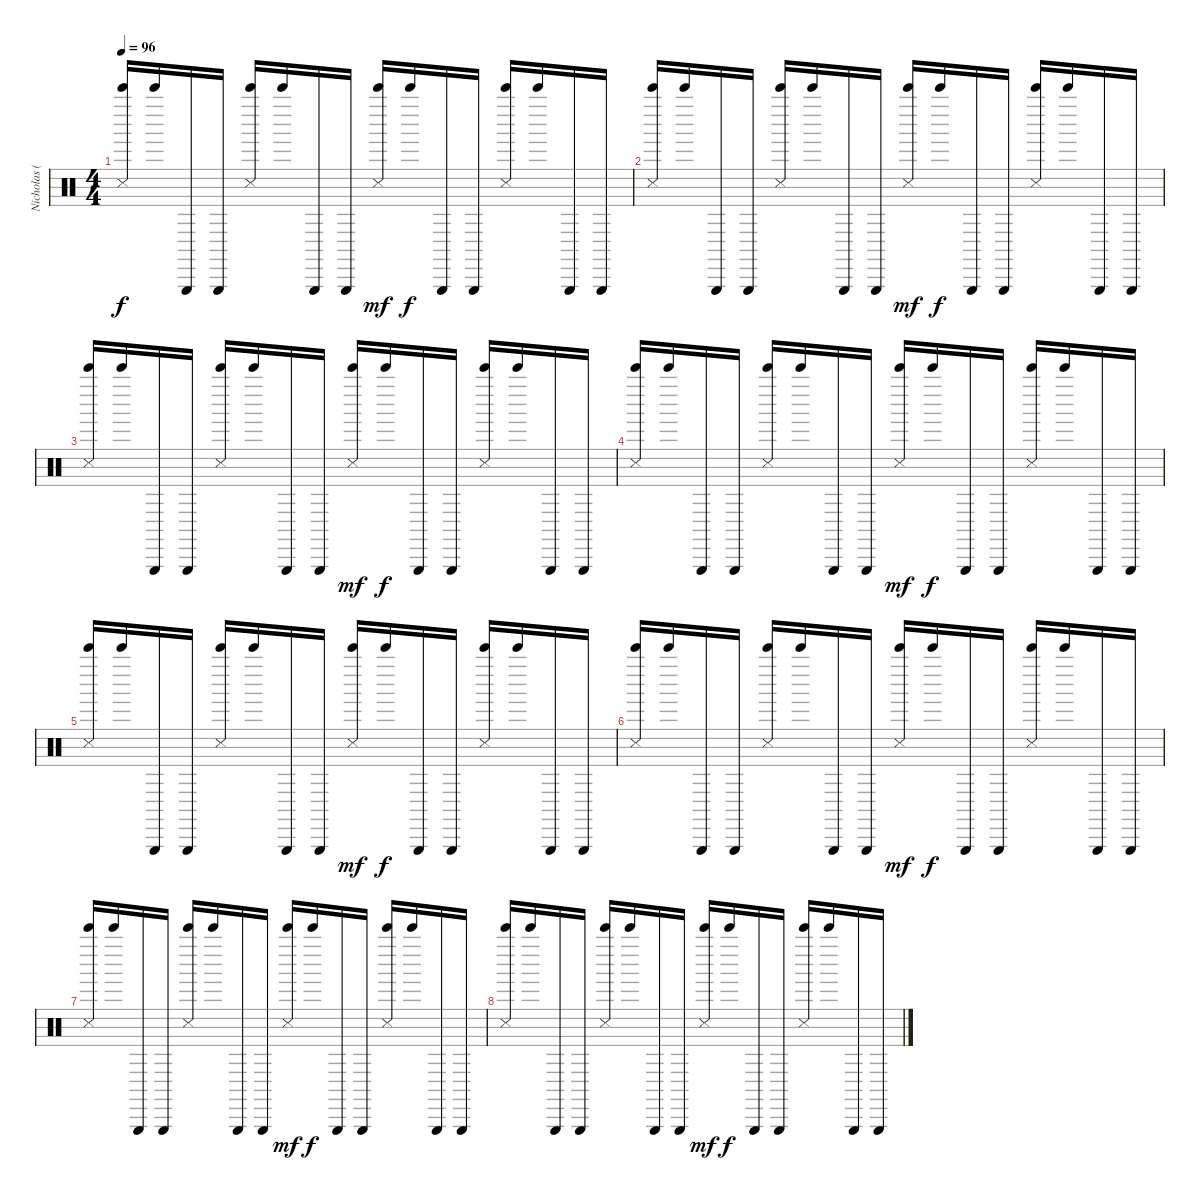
\track ("Nicholas (Drums)" "Nicholas (") {instrument percussion}
\staff {score}
\articulation defaults
\ts (4 4)
\section ("" "")
\tempo 96
\tempo 120
\tempo 96
\clef neutral
\ks c
("Bell Tree (hit)" "Metronome (hit)").16{dy f} "Bell Tree (hit)".16 "Triangle (hit)".16 "Triangle (hit)".16 ("Bell Tree (hit)" "Snare (side stick) 3").16 "Bell Tree (hit)".16 "Triangle (hit)".16 "Triangle (hit)".16 ("Bell Tree (hit)" "Metronome (hit)").16{dy mf} "Bell Tree (hit)".16{dy f} "Triangle (hit)".16 "Triangle (hit)".16 ("Bell Tree (hit)" "Snare (side stick) 3").16 "Bell Tree (hit)".16 "Triangle (hit)".16 "Triangle (hit)".16 |
("Bell Tree (hit)" "Metronome (hit)").16 "Bell Tree (hit)".16 "Triangle (hit)".16 "Triangle (hit)".16 ("Bell Tree (hit)" "Snare (side stick) 3").16 "Bell Tree (hit)".16 "Triangle (hit)".16 "Triangle (hit)".16 ("Bell Tree (hit)" "Metronome (hit)").16{dy mf} "Bell Tree (hit)".16{dy f} "Triangle (hit)".16 "Triangle (hit)".16 ("Bell Tree (hit)" "Snare (side stick) 3").16 "Bell Tree (hit)".16 "Triangle (hit)".16 "Triangle (hit)".16 |
("Bell Tree (hit)" "Metronome (hit)").16 "Bell Tree (hit)".16 "Triangle (hit)".16 "Triangle (hit)".16 ("Bell Tree (hit)" "Snare (side stick) 3").16 "Bell Tree (hit)".16 "Triangle (hit)".16 "Triangle (hit)".16 ("Bell Tree (hit)" "Metronome (hit)").16{dy mf} "Bell Tree (hit)".16{dy f} "Triangle (hit)".16 "Triangle (hit)".16 ("Bell Tree (hit)" "Snare (side stick) 3").16 "Bell Tree (hit)".16 "Triangle (hit)".16 "Triangle (hit)".16 |
("Bell Tree (hit)" "Metronome (hit)").16 "Bell Tree (hit)".16 "Triangle (hit)".16 "Triangle (hit)".16 ("Bell Tree (hit)" "Snare (side stick) 3").16 "Bell Tree (hit)".16 "Triangle (hit)".16 "Triangle (hit)".16 ("Bell Tree (hit)" "Metronome (hit)").16{dy mf} "Bell Tree (hit)".16{dy f} "Triangle (hit)".16 "Triangle (hit)".16 ("Bell Tree (hit)" "Snare (side stick) 3").16 "Bell Tree (hit)".16 "Triangle (hit)".16 "Triangle (hit)".16 |
("Bell Tree (hit)" "Metronome (hit)").16 "Bell Tree (hit)".16 "Triangle (hit)".16 "Triangle (hit)".16 ("Bell Tree (hit)" "Snare (side stick) 3").16 "Bell Tree (hit)".16 "Triangle (hit)".16 "Triangle (hit)".16 ("Bell Tree (hit)" "Metronome (hit)").16{dy mf} "Bell Tree (hit)".16{dy f} "Triangle (hit)".16 "Triangle (hit)".16 ("Bell Tree (hit)" "Snare (side stick) 3").16 "Bell Tree (hit)".16 "Triangle (hit)".16 "Triangle (hit)".16 |
("Bell Tree (hit)" "Metronome (hit)").16 "Bell Tree (hit)".16 "Triangle (hit)".16 "Triangle (hit)".16 ("Bell Tree (hit)" "Snare (side stick) 3").16 "Bell Tree (hit)".16 "Triangle (hit)".16 "Triangle (hit)".16 ("Bell Tree (hit)" "Metronome (hit)").16{dy mf} "Bell Tree (hit)".16{dy f} "Triangle (hit)".16 "Triangle (hit)".16 ("Bell Tree (hit)" "Snare (side stick) 3").16 "Bell Tree (hit)".16 "Triangle (hit)".16 "Triangle (hit)".16 |
("Bell Tree (hit)" "Metronome (hit)").16 "Bell Tree (hit)".16 "Triangle (hit)".16 "Triangle (hit)".16 ("Bell Tree (hit)" "Snare (side stick) 3").16 "Bell Tree (hit)".16 "Triangle (hit)".16 "Triangle (hit)".16 ("Bell Tree (hit)" "Metronome (hit)").16{dy mf} "Bell Tree (hit)".16{dy f} "Triangle (hit)".16 "Triangle (hit)".16 ("Bell Tree (hit)" "Snare (side stick) 3").16 "Bell Tree (hit)".16 "Triangle (hit)".16 "Triangle (hit)".16 |
("Bell Tree (hit)" "Metronome (hit)").16 "Bell Tree (hit)".16 "Triangle (hit)".16 "Triangle (hit)".16 ("Bell Tree (hit)" "Snare (side stick) 3").16 "Bell Tree (hit)".16 "Triangle (hit)".16 "Triangle (hit)".16 ("Bell Tree (hit)" "Metronome (hit)").16{dy mf} "Bell Tree (hit)".16{dy f} "Triangle (hit)".16 "Triangle (hit)".16 ("Bell Tree (hit)" "Snare (side stick) 3").16 "Bell Tree (hit)".16 "Triangle (hit)".16 "Triangle (hit)".16
